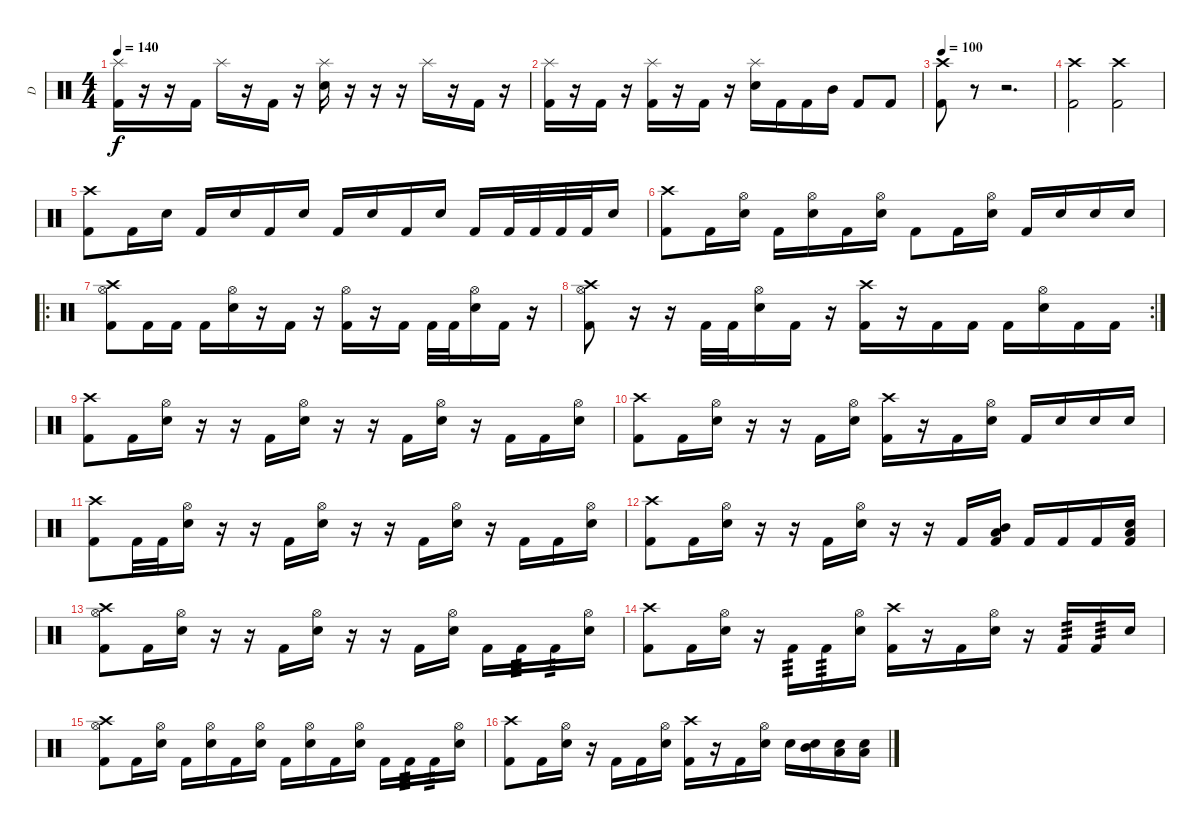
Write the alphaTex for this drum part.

\track ("D" "D") {instrument percussion}
\staff {score}
\articulation defaults
\ts (4 4)
\tempo 140
\clef neutral
\ks c
("Kick (hit) 2" "Splash (hit)").16{dy f} r.16 r.16 "Kick (hit) 2".16 "Splash (hit)".16 r.16 "Kick (hit) 2".16 r.16 ("Electric Snare (hit)" "Splash (hit)").16 r.16 r.16 r.16 "Splash (hit)".16 r.16 "Kick (hit) 2".16 r.16 |
("Kick (hit) 2" "Splash (hit)").16 r.16 "Kick (hit) 2".16 r.16 ("Kick (hit) 2" "Splash (hit)").16 r.16 "Kick (hit) 2".16 r.16 ("Electric Snare (hit)" "Splash (hit)").16 "Kick (hit) 2".16 "Kick (hit) 2".16 "Mid Tom (hit)".16 "Kick (hit) 2".8 "Kick (hit) 2".8 |
\tempo 100
("Crash high (hit)" "Kick (hit) 2").8 r.8 r.2{d} |
("Crash high (hit)" "Kick (hit) 2").2 ("Crash high (hit)" "Kick (hit) 2").2 |
("Crash high (hit)" "Kick (hit) 2").8 "Kick (hit) 2".16 "Electric Snare (hit)".16 "Kick (hit) 2".16 "Electric Snare (hit)".16 "Kick (hit) 2".16 "Electric Snare (hit)".16 "Kick (hit) 2".16 "Electric Snare (hit)".16 "Kick (hit) 2".16 "Electric Snare (hit)".16 "Kick (hit) 2".16 "Kick (hit) 2".32 "Kick (hit) 2".32 "Kick (hit) 2".32 "Kick (hit) 2".32 "Electric Snare (hit)".16 |
("Crash high (hit)" "Kick (hit) 2").8 "Kick (hit) 2".16 ("Electric Snare (hit)" "Hi-Hat (open)").16 "Kick (hit) 2".16 ("Electric Snare (hit)" "Hi-Hat (open)").16 "Kick (hit) 2".16 ("Electric Snare (hit)" "Hi-Hat (open)").16 "Kick (hit) 2".8 "Kick (hit) 2".16 ("Electric Snare (hit)" "Hi-Hat (open)").16 "Kick (hit) 2".16 "Electric Snare (hit)".16 "Electric Snare (hit)".16 "Electric Snare (hit)".16 |
\ro
("Crash high (hit)" "Kick (hit) 2" "Hi-Hat (open)").8 "Kick (hit) 2".16 "Kick (hit) 2".16 "Kick (hit) 2".16 ("Electric Snare (hit)" "Hi-Hat (open)").16 r.16 "Kick (hit) 2".16 r.16 ("Kick (hit) 2" "Hi-Hat (open)").16 r.16 "Kick (hit) 2".16 "Kick (hit) 2".32 "Kick (hit) 2".32 ("Electric Snare (hit)" "Hi-Hat (open)").16 "Kick (hit) 2".16 r.16 |
\rc 2
("Crash high (hit)" "Kick (hit) 2" "Hi-Hat (open)").8 r.16 r.16 "Kick (hit) 2".32 "Kick (hit) 2".32 ("Electric Snare (hit)" "Hi-Hat (open)").16 "Kick (hit) 2".16 r.16 ("Crash high (hit)" "Kick (hit) 2").16 r.16 "Kick (hit) 2".16 "Kick (hit) 2".16 "Kick (hit) 2".16 ("Electric Snare (hit)" "Hi-Hat (open)").16 "Kick (hit) 2".16 "Kick (hit) 2".16 |
("Crash high (hit)" "Kick (hit) 2").8 "Kick (hit) 2".16 ("Electric Snare (hit)" "Hi-Hat (open)").16 r.16 r.16 "Kick (hit) 2".16 ("Electric Snare (hit)" "Hi-Hat (open)").16 r.16 r.16 "Kick (hit) 2".16 ("Electric Snare (hit)" "Hi-Hat (open)").16 r.16 "Kick (hit) 2".16 "Kick (hit) 2".16 ("Electric Snare (hit)" "Hi-Hat (open)").16 |
("Crash high (hit)" "Kick (hit) 2").8 "Kick (hit) 2".16 ("Electric Snare (hit)" "Hi-Hat (open)").16 r.16 r.16 "Kick (hit) 2".16 ("Electric Snare (hit)" "Hi-Hat (open)").16 ("Crash high (hit)" "Kick (hit) 2").16 r.16 "Kick (hit) 2".16 ("Electric Snare (hit)" "Hi-Hat (open)").16 "Kick (hit) 2".16 "Electric Snare (hit)".16 "Electric Snare (hit)".16 "Electric Snare (hit)".16 |
("Crash high (hit)" "Kick (hit) 2").8 "Kick (hit) 2".32 "Kick (hit) 2".32 ("Electric Snare (hit)" "Hi-Hat (open)").16 r.16 r.16 "Kick (hit) 2".16 ("Electric Snare (hit)" "Hi-Hat (open)").16 r.16 r.16 "Kick (hit) 2".16 ("Electric Snare (hit)" "Hi-Hat (open)").16 r.16 "Kick (hit) 2".16 "Kick (hit) 2".16 ("Electric Snare (hit)" "Hi-Hat (open)").16 |
("Crash high (hit)" "Kick (hit) 2").8 "Kick (hit) 2".16 ("Electric Snare (hit)" "Hi-Hat (open)").16 r.16 r.16 "Kick (hit) 2".16 ("Electric Snare (hit)" "Hi-Hat (open)").16 r.16 r.16 "Kick (hit) 2".16 ("Mid Tom (hit)" "Low Tom (hit)" "Kick (hit) 2").16 "Kick (hit) 2".16 "Kick (hit) 2".16 "Kick (hit) 2".16 ("Low Tom (hit)" "Electric Snare (hit)" "Kick (hit) 2").16 |
("Crash high (hit)" "Kick (hit) 2" "Hi-Hat (open)").8 "Kick (hit) 2".16 ("Electric Snare (hit)" "Hi-Hat (open)").16 r.16 r.16 "Kick (hit) 2".16 ("Electric Snare (hit)" "Hi-Hat (open)").16 r.16 r.16 "Kick (hit) 2".16 ("Electric Snare (hit)" "Hi-Hat (open)").16 "Kick (hit) 2".16 "Kick (hit) 2".16{tp 3} "Kick (hit) 2".16{tp 3} ("Electric Snare (hit)" "Hi-Hat (open)").16 |
("Crash high (hit)" "Kick (hit) 2").8 "Kick (hit) 2".16 ("Electric Snare (hit)" "Hi-Hat (open)").16 r.16 "Kick (hit) 2".16{tp 3} "Kick (hit) 2".16{tp 3} ("Electric Snare (hit)" "Hi-Hat (open)").16 ("Crash high (hit)" "Kick (hit) 2").16 r.16 "Kick (hit) 2".16 ("Electric Snare (hit)" "Hi-Hat (open)").16 r.16 "Kick (hit) 2".16{tp 3} "Kick (hit) 2".16{tp 3} "Electric Snare (hit)".16 |
("Crash high (hit)" "Kick (hit) 2" "Hi-Hat (open)").8 "Kick (hit) 2".16 ("Electric Snare (hit)" "Hi-Hat (open)").16 "Kick (hit) 2".16 ("Electric Snare (hit)" "Hi-Hat (open)").16 "Kick (hit) 2".16 ("Electric Snare (hit)" "Hi-Hat (open)").16 "Kick (hit) 2".16 ("Electric Snare (hit)" "Hi-Hat (open)").16 "Kick (hit) 2".16 ("Electric Snare (hit)" "Hi-Hat (open)").16 "Kick (hit) 2".16 "Kick (hit) 2".16{tp 3} "Kick (hit) 2".16{tp 3} ("Electric Snare (hit)" "Hi-Hat (open)").16 |
("Crash high (hit)" "Kick (hit) 2").8 "Kick (hit) 2".16 ("Electric Snare (hit)" "Hi-Hat (open)").16 r.16 "Kick (hit) 2".16 "Kick (hit) 2".16 ("Electric Snare (hit)" "Hi-Hat (open)").16 ("Crash high (hit)" "Kick (hit) 2").16 r.16 "Kick (hit) 2".16 ("Electric Snare (hit)" "Hi-Hat (open)").16 "Electric Snare (hit)".16 ("Mid Tom (hit)" "Electric Snare (hit)").16 ("Low Tom (hit)" "Electric Snare (hit)").16 ("Low Tom (hit)" "Electric Snare (hit)").16
